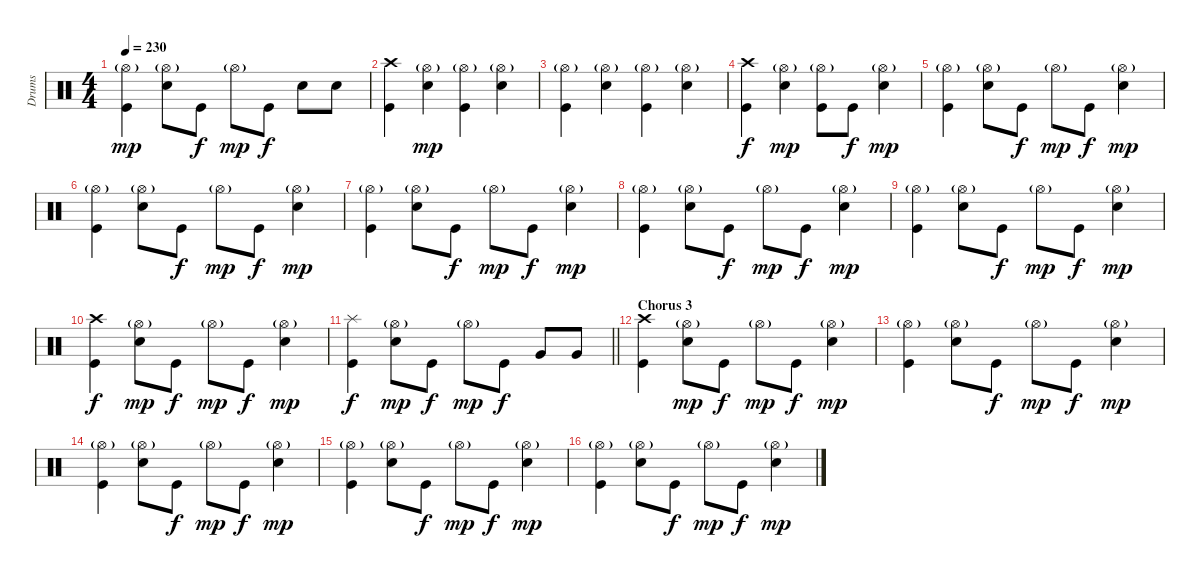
\track ("Drums" "Drums") {instrument percussion}
\staff {score}
\articulation defaults
\ts (4 4)
\tempo 230
\clef neutral
\ks c
("Hi-Hat (open)"{g} "Kick (hit)").4{dy mp} ("Hi-Hat (open)"{g} "Snare (hit) 2").8 "Kick (hit)".8{dy f} "Hi-Hat (open)"{g}.8{dy mp} "Kick (hit)".8{dy f} "Snare (hit) 2".8 "Snare (hit) 2".8 |
("Crash high (hit)" "Kick (hit)").4 ("Hi-Hat (open)"{g} "Snare (hit) 2").4{dy mp} ("Hi-Hat (open)"{g} "Kick (hit)").4 ("Hi-Hat (open)"{g} "Snare (hit) 2").4 |
("Hi-Hat (open)"{g} "Kick (hit)").4 ("Hi-Hat (open)"{g} "Snare (hit) 2").4 ("Hi-Hat (open)"{g} "Kick (hit)").4 ("Hi-Hat (open)"{g} "Snare (hit) 2").4 |
("Crash high (hit)" "Kick (hit)").4{dy f} ("Hi-Hat (open)"{g} "Snare (hit) 2").4{dy mp} ("Hi-Hat (open)"{g} "Kick (hit)").8 "Kick (hit)".8{dy f} ("Hi-Hat (open)"{g} "Snare (hit) 2").4{dy mp} |
("Hi-Hat (open)"{g} "Kick (hit)").4 ("Hi-Hat (open)"{g} "Snare (hit) 2").8 "Kick (hit)".8{dy f} "Hi-Hat (open)"{g}.8{dy mp} "Kick (hit)".8{dy f} ("Hi-Hat (open)"{g} "Snare (hit) 2").4{dy mp} |
("Hi-Hat (open)"{g} "Kick (hit)").4 ("Hi-Hat (open)"{g} "Snare (hit) 2").8 "Kick (hit)".8{dy f} "Hi-Hat (open)"{g}.8{dy mp} "Kick (hit)".8{dy f} ("Hi-Hat (open)"{g} "Snare (hit) 2").4{dy mp} |
("Hi-Hat (open)"{g} "Kick (hit)").4 ("Hi-Hat (open)"{g} "Snare (hit) 2").8 "Kick (hit)".8{dy f} "Hi-Hat (open)"{g}.8{dy mp} "Kick (hit)".8{dy f} ("Hi-Hat (open)"{g} "Snare (hit) 2").4{dy mp} |
("Hi-Hat (open)"{g} "Kick (hit)").4 ("Hi-Hat (open)"{g} "Snare (hit) 2").8 "Kick (hit)".8{dy f} "Hi-Hat (open)"{g}.8{dy mp} "Kick (hit)".8{dy f} ("Hi-Hat (open)"{g} "Snare (hit) 2").4{dy mp} |
("Hi-Hat (open)"{g} "Kick (hit)").4 ("Hi-Hat (open)"{g} "Snare (hit) 2").8 "Kick (hit)".8{dy f} "Hi-Hat (open)"{g}.8{dy mp} "Kick (hit)".8{dy f} ("Hi-Hat (open)"{g} "Snare (hit) 2").4{dy mp} |
("Crash high (hit)" "Kick (hit)").4{dy f} ("Hi-Hat (open)"{g} "Snare (hit) 2").8{dy mp} "Kick (hit)".8{dy f} "Hi-Hat (open)"{g}.8{dy mp} "Kick (hit)".8{dy f} ("Hi-Hat (open)"{g} "Snare (hit) 2").4{dy mp} |
\barLineRight lightlight
("Splash (hit)" "Kick (hit)").4{dy f} ("Hi-Hat (open)"{g} "Snare (hit) 2").8{dy mp} "Kick (hit)".8{dy f} "Hi-Hat (open)"{g}.8{dy mp} "Kick (hit)".8{dy f} "Very Low Tom (hit)".8 "Very Low Tom (hit)".8 |
\section ("" "Chorus 3")
("Crash high (hit)" "Kick (hit)").4 ("Hi-Hat (open)"{g} "Snare (hit) 2").8{dy mp} "Kick (hit)".8{dy f} "Hi-Hat (open)"{g}.8{dy mp} "Kick (hit)".8{dy f} ("Hi-Hat (open)"{g} "Snare (hit) 2").4{dy mp} |
("Hi-Hat (open)"{g} "Kick (hit)").4 ("Hi-Hat (open)"{g} "Snare (hit) 2").8 "Kick (hit)".8{dy f} "Hi-Hat (open)"{g}.8{dy mp} "Kick (hit)".8{dy f} ("Hi-Hat (open)"{g} "Snare (hit) 2").4{dy mp} |
("Hi-Hat (open)"{g} "Kick (hit)").4 ("Hi-Hat (open)"{g} "Snare (hit) 2").8 "Kick (hit)".8{dy f} "Hi-Hat (open)"{g}.8{dy mp} "Kick (hit)".8{dy f} ("Hi-Hat (open)"{g} "Snare (hit) 2").4{dy mp} |
("Hi-Hat (open)"{g} "Kick (hit)").4 ("Hi-Hat (open)"{g} "Snare (hit) 2").8 "Kick (hit)".8{dy f} "Hi-Hat (open)"{g}.8{dy mp} "Kick (hit)".8{dy f} ("Hi-Hat (open)"{g} "Snare (hit) 2").4{dy mp} |
("Hi-Hat (open)"{g} "Kick (hit)").4 ("Hi-Hat (open)"{g} "Snare (hit) 2").8 "Kick (hit)".8{dy f} "Hi-Hat (open)"{g}.8{dy mp} "Kick (hit)".8{dy f} ("Hi-Hat (open)"{g} "Snare (hit) 2").4{dy mp}
